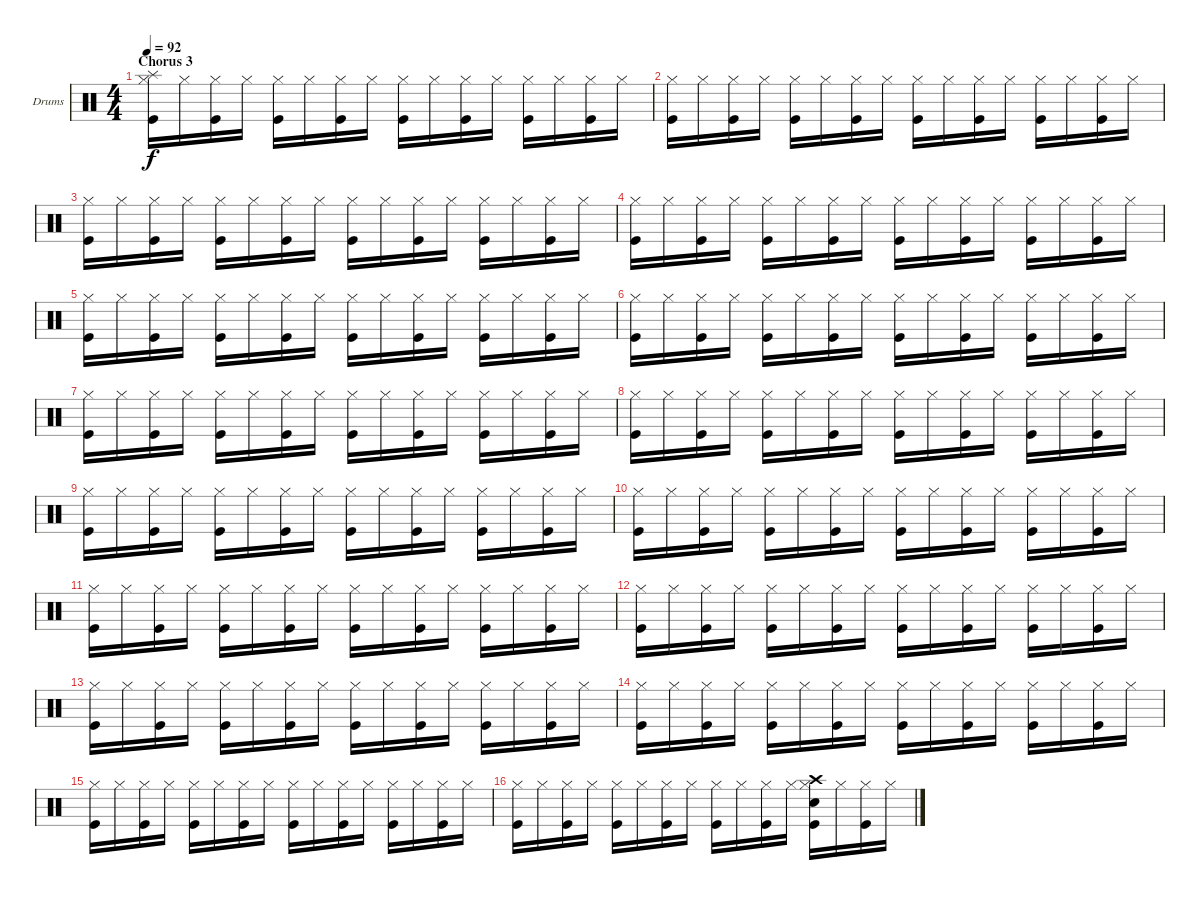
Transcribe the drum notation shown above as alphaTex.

\bracketExtendMode groupsimilarinstruments
\firstSystemTrackNameOrientation horizontal
\otherSystemsTrackNameOrientation horizontal
\track ("Drumkit" "Drums") {instrument percussion}
\staff {score}
\articulation defaults
\ts (4 4)
\section ("" "Chorus 3")
\tempo 92
\clef neutral
\ks c
("Hi-Hat (closed)" "Splash (hit)" "Kick (hit)").16{dy f} "Hi-Hat (closed)".16 ("Hi-Hat (closed)" "Kick (hit)").16 "Hi-Hat (closed)".16 ("Hi-Hat (closed)" "Kick (hit)").16 "Hi-Hat (closed)".16 ("Hi-Hat (closed)" "Kick (hit)").16 "Hi-Hat (closed)".16 ("Hi-Hat (closed)" "Kick (hit)").16 "Hi-Hat (closed)".16 ("Hi-Hat (closed)" "Kick (hit)").16 "Hi-Hat (closed)".16 ("Hi-Hat (closed)" "Kick (hit)").16 "Hi-Hat (closed)".16 ("Hi-Hat (closed)" "Kick (hit)").16 "Hi-Hat (closed)".16 |
("Hi-Hat (closed)" "Kick (hit)").16 "Hi-Hat (closed)".16 ("Hi-Hat (closed)" "Kick (hit)").16 "Hi-Hat (closed)".16 ("Hi-Hat (closed)" "Kick (hit)").16 "Hi-Hat (closed)".16 ("Hi-Hat (closed)" "Kick (hit)").16 "Hi-Hat (closed)".16 ("Hi-Hat (closed)" "Kick (hit)").16 "Hi-Hat (closed)".16 ("Hi-Hat (closed)" "Kick (hit)").16 "Hi-Hat (closed)".16 ("Hi-Hat (closed)" "Kick (hit)").16 "Hi-Hat (closed)".16 ("Hi-Hat (closed)" "Kick (hit)").16 "Hi-Hat (closed)".16 |
("Hi-Hat (closed)" "Kick (hit)").16 "Hi-Hat (closed)".16 ("Hi-Hat (closed)" "Kick (hit)").16 "Hi-Hat (closed)".16 ("Hi-Hat (closed)" "Kick (hit)").16 "Hi-Hat (closed)".16 ("Hi-Hat (closed)" "Kick (hit)").16 "Hi-Hat (closed)".16 ("Hi-Hat (closed)" "Kick (hit)").16 "Hi-Hat (closed)".16 ("Hi-Hat (closed)" "Kick (hit)").16 "Hi-Hat (closed)".16 ("Hi-Hat (closed)" "Kick (hit)").16 "Hi-Hat (closed)".16 ("Hi-Hat (closed)" "Kick (hit)").16 "Hi-Hat (closed)".16 |
("Hi-Hat (closed)" "Kick (hit)").16 "Hi-Hat (closed)".16 ("Hi-Hat (closed)" "Kick (hit)").16 "Hi-Hat (closed)".16 ("Hi-Hat (closed)" "Kick (hit)").16 "Hi-Hat (closed)".16 ("Hi-Hat (closed)" "Kick (hit)").16 "Hi-Hat (closed)".16 ("Hi-Hat (closed)" "Kick (hit)").16 "Hi-Hat (closed)".16 ("Hi-Hat (closed)" "Kick (hit)").16 "Hi-Hat (closed)".16 ("Hi-Hat (closed)" "Kick (hit)").16 "Hi-Hat (closed)".16 ("Hi-Hat (closed)" "Kick (hit)").16 "Hi-Hat (closed)".16 |
("Hi-Hat (closed)" "Kick (hit)").16 "Hi-Hat (closed)".16 ("Hi-Hat (closed)" "Kick (hit)").16 "Hi-Hat (closed)".16 ("Hi-Hat (closed)" "Kick (hit)").16 "Hi-Hat (closed)".16 ("Hi-Hat (closed)" "Kick (hit)").16 "Hi-Hat (closed)".16 ("Hi-Hat (closed)" "Kick (hit)").16 "Hi-Hat (closed)".16 ("Hi-Hat (closed)" "Kick (hit)").16 "Hi-Hat (closed)".16 ("Hi-Hat (closed)" "Kick (hit)").16 "Hi-Hat (closed)".16 ("Hi-Hat (closed)" "Kick (hit)").16 "Hi-Hat (closed)".16 |
("Hi-Hat (closed)" "Kick (hit)").16 "Hi-Hat (closed)".16 ("Hi-Hat (closed)" "Kick (hit)").16 "Hi-Hat (closed)".16 ("Hi-Hat (closed)" "Kick (hit)").16 "Hi-Hat (closed)".16 ("Hi-Hat (closed)" "Kick (hit)").16 "Hi-Hat (closed)".16 ("Hi-Hat (closed)" "Kick (hit)").16 "Hi-Hat (closed)".16 ("Hi-Hat (closed)" "Kick (hit)").16 "Hi-Hat (closed)".16 ("Hi-Hat (closed)" "Kick (hit)").16 "Hi-Hat (closed)".16 ("Hi-Hat (closed)" "Kick (hit)").16 "Hi-Hat (closed)".16 |
("Hi-Hat (closed)" "Kick (hit)").16 "Hi-Hat (closed)".16 ("Hi-Hat (closed)" "Kick (hit)").16 "Hi-Hat (closed)".16 ("Hi-Hat (closed)" "Kick (hit)").16 "Hi-Hat (closed)".16 ("Hi-Hat (closed)" "Kick (hit)").16 "Hi-Hat (closed)".16 ("Hi-Hat (closed)" "Kick (hit)").16 "Hi-Hat (closed)".16 ("Hi-Hat (closed)" "Kick (hit)").16 "Hi-Hat (closed)".16 ("Hi-Hat (closed)" "Kick (hit)").16 "Hi-Hat (closed)".16 ("Hi-Hat (closed)" "Kick (hit)").16 "Hi-Hat (closed)".16 |
("Hi-Hat (closed)" "Kick (hit)").16 "Hi-Hat (closed)".16 ("Hi-Hat (closed)" "Kick (hit)").16 "Hi-Hat (closed)".16 ("Hi-Hat (closed)" "Kick (hit)").16 "Hi-Hat (closed)".16 ("Hi-Hat (closed)" "Kick (hit)").16 "Hi-Hat (closed)".16 ("Hi-Hat (closed)" "Kick (hit)").16 "Hi-Hat (closed)".16 ("Hi-Hat (closed)" "Kick (hit)").16 "Hi-Hat (closed)".16 ("Hi-Hat (closed)" "Kick (hit)").16 "Hi-Hat (closed)".16 ("Hi-Hat (closed)" "Kick (hit)").16 "Hi-Hat (closed)".16 |
("Hi-Hat (closed)" "Kick (hit)").16 "Hi-Hat (closed)".16 ("Hi-Hat (closed)" "Kick (hit)").16 "Hi-Hat (closed)".16 ("Hi-Hat (closed)" "Kick (hit)").16 "Hi-Hat (closed)".16 ("Hi-Hat (closed)" "Kick (hit)").16 "Hi-Hat (closed)".16 ("Hi-Hat (closed)" "Kick (hit)").16 "Hi-Hat (closed)".16 ("Hi-Hat (closed)" "Kick (hit)").16 "Hi-Hat (closed)".16 ("Hi-Hat (closed)" "Kick (hit)").16 "Hi-Hat (closed)".16 ("Hi-Hat (closed)" "Kick (hit)").16 "Hi-Hat (closed)".16 |
("Hi-Hat (closed)" "Kick (hit)").16 "Hi-Hat (closed)".16 ("Hi-Hat (closed)" "Kick (hit)").16 "Hi-Hat (closed)".16 ("Hi-Hat (closed)" "Kick (hit)").16 "Hi-Hat (closed)".16 ("Hi-Hat (closed)" "Kick (hit)").16 "Hi-Hat (closed)".16 ("Hi-Hat (closed)" "Kick (hit)").16 "Hi-Hat (closed)".16 ("Hi-Hat (closed)" "Kick (hit)").16 "Hi-Hat (closed)".16 ("Hi-Hat (closed)" "Kick (hit)").16 "Hi-Hat (closed)".16 ("Hi-Hat (closed)" "Kick (hit)").16 "Hi-Hat (closed)".16 |
("Hi-Hat (closed)" "Kick (hit)").16 "Hi-Hat (closed)".16 ("Hi-Hat (closed)" "Kick (hit)").16 "Hi-Hat (closed)".16 ("Hi-Hat (closed)" "Kick (hit)").16 "Hi-Hat (closed)".16 ("Hi-Hat (closed)" "Kick (hit)").16 "Hi-Hat (closed)".16 ("Hi-Hat (closed)" "Kick (hit)").16 "Hi-Hat (closed)".16 ("Hi-Hat (closed)" "Kick (hit)").16 "Hi-Hat (closed)".16 ("Hi-Hat (closed)" "Kick (hit)").16 "Hi-Hat (closed)".16 ("Hi-Hat (closed)" "Kick (hit)").16 "Hi-Hat (closed)".16 |
("Hi-Hat (closed)" "Kick (hit)").16 "Hi-Hat (closed)".16 ("Hi-Hat (closed)" "Kick (hit)").16 "Hi-Hat (closed)".16 ("Hi-Hat (closed)" "Kick (hit)").16 "Hi-Hat (closed)".16 ("Hi-Hat (closed)" "Kick (hit)").16 "Hi-Hat (closed)".16 ("Hi-Hat (closed)" "Kick (hit)").16 "Hi-Hat (closed)".16 ("Hi-Hat (closed)" "Kick (hit)").16 "Hi-Hat (closed)".16 ("Hi-Hat (closed)" "Kick (hit)").16 "Hi-Hat (closed)".16 ("Hi-Hat (closed)" "Kick (hit)").16 "Hi-Hat (closed)".16 |
("Hi-Hat (closed)" "Kick (hit)").16 "Hi-Hat (closed)".16 ("Hi-Hat (closed)" "Kick (hit)").16 "Hi-Hat (closed)".16 ("Hi-Hat (closed)" "Kick (hit)").16 "Hi-Hat (closed)".16 ("Hi-Hat (closed)" "Kick (hit)").16 "Hi-Hat (closed)".16 ("Hi-Hat (closed)" "Kick (hit)").16 "Hi-Hat (closed)".16 ("Hi-Hat (closed)" "Kick (hit)").16 "Hi-Hat (closed)".16 ("Hi-Hat (closed)" "Kick (hit)").16 "Hi-Hat (closed)".16 ("Hi-Hat (closed)" "Kick (hit)").16 "Hi-Hat (closed)".16 |
("Hi-Hat (closed)" "Kick (hit)").16 "Hi-Hat (closed)".16 ("Hi-Hat (closed)" "Kick (hit)").16 "Hi-Hat (closed)".16 ("Hi-Hat (closed)" "Kick (hit)").16 "Hi-Hat (closed)".16 ("Hi-Hat (closed)" "Kick (hit)").16 "Hi-Hat (closed)".16 ("Hi-Hat (closed)" "Kick (hit)").16 "Hi-Hat (closed)".16 ("Hi-Hat (closed)" "Kick (hit)").16 "Hi-Hat (closed)".16 ("Hi-Hat (closed)" "Kick (hit)").16 "Hi-Hat (closed)".16 ("Hi-Hat (closed)" "Kick (hit)").16 "Hi-Hat (closed)".16 |
("Hi-Hat (closed)" "Kick (hit)").16 "Hi-Hat (closed)".16 ("Hi-Hat (closed)" "Kick (hit)").16 "Hi-Hat (closed)".16 ("Hi-Hat (closed)" "Kick (hit)").16 "Hi-Hat (closed)".16 ("Hi-Hat (closed)" "Kick (hit)").16 "Hi-Hat (closed)".16 ("Hi-Hat (closed)" "Kick (hit)").16 "Hi-Hat (closed)".16 ("Hi-Hat (closed)" "Kick (hit)").16 "Hi-Hat (closed)".16 ("Hi-Hat (closed)" "Kick (hit)").16 "Hi-Hat (closed)".16 ("Hi-Hat (closed)" "Kick (hit)").16 "Hi-Hat (closed)".16 |
("Hi-Hat (closed)" "Kick (hit)").16 "Hi-Hat (closed)".16 ("Hi-Hat (closed)" "Kick (hit)").16 "Hi-Hat (closed)".16 ("Hi-Hat (closed)" "Kick (hit)").16 "Hi-Hat (closed)".16 ("Hi-Hat (closed)" "Kick (hit)").16 "Hi-Hat (closed)".16 ("Hi-Hat (closed)" "Kick (hit)").16 "Hi-Hat (closed)".16 ("Hi-Hat (closed)" "Kick (hit)").16 "Hi-Hat (closed)".16 ("Hi-Hat (closed)" "Crash high (hit)" "Snare (hit) 2" "Kick (hit)").16 "Hi-Hat (closed)".16 ("Hi-Hat (closed)" "Kick (hit)").16 "Hi-Hat (closed)".16
